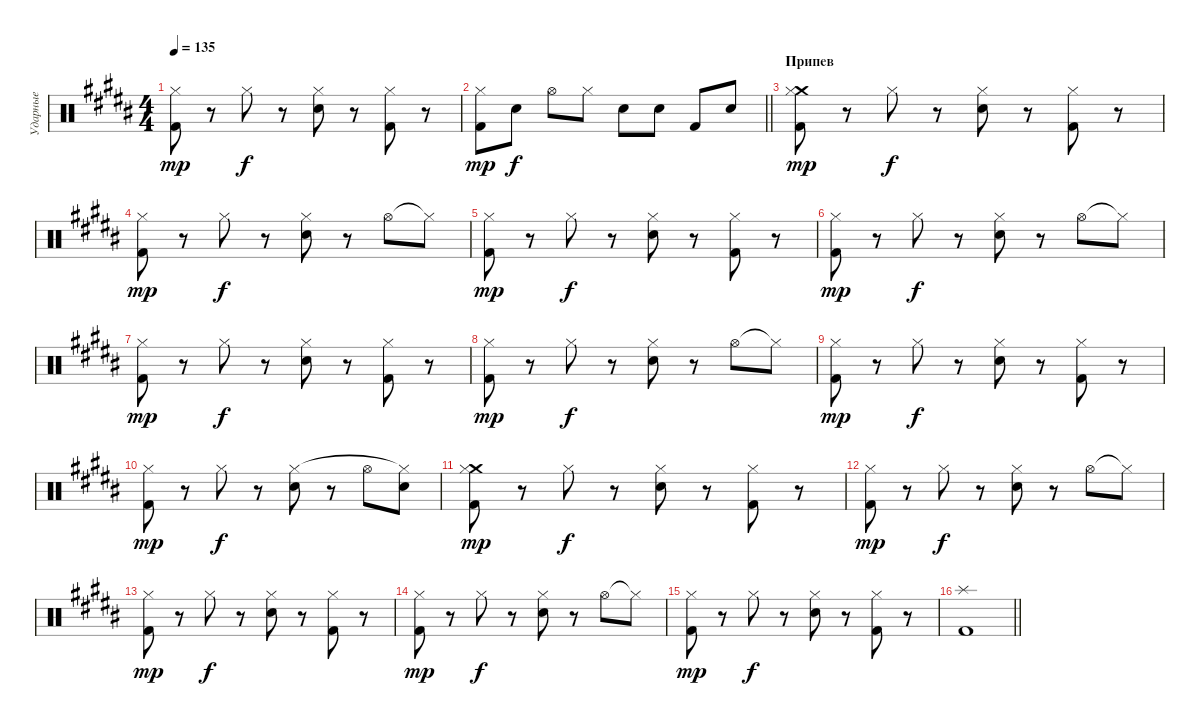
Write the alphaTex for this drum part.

\track ("Ударные" "Ударные") {instrument percussion}
\staff {score}
\articulation defaults
\ts (4 4)
\tempo 135
\clef neutral
\ks g#minor
("Kick (hit) 2" "Hi-Hat (closed)").8{dy mp} r.8 "Hi-Hat (closed)".8{dy f} r.8 ("Electric Snare (hit)" "Hi-Hat (closed)").8 r.8 ("Kick (hit) 2" "Hi-Hat (closed)").8 r.8 |
\barLineRight lightlight
("Kick (hit) 2" "Hi-Hat (closed)").8{dy mp} "Electric Snare (hit)".8{dy f} "Hi-Hat (open)".8 "Hi-Hat (closed)".8 "Electric Snare (hit)".8 "Electric Snare (hit)".8 "Kick (hit) 2".8 "Electric Snare (hit)".8 |
\section ("" "Припев")
("Crash medium (hit)" "Kick (hit) 2" "Hi-Hat (closed)").8{dy mp} r.8 "Hi-Hat (closed)".8{dy f} r.8 ("Electric Snare (hit)" "Hi-Hat (closed)").8 r.8 ("Kick (hit) 2" "Hi-Hat (closed)").8 r.8 |
("Kick (hit) 2" "Hi-Hat (closed)").8{dy mp} r.8 "Hi-Hat (closed)".8{dy f} r.8 ("Electric Snare (hit)" "Hi-Hat (closed)").8 r.8 "Hi-Hat (open)".8 "Hi-Hat (closed)"{t}.8 |
("Kick (hit) 2" "Hi-Hat (closed)").8{dy mp} r.8 "Hi-Hat (closed)".8{dy f} r.8 ("Electric Snare (hit)" "Hi-Hat (closed)").8 r.8 ("Kick (hit) 2" "Hi-Hat (closed)").8 r.8 |
("Kick (hit) 2" "Hi-Hat (closed)").8{dy mp} r.8 "Hi-Hat (closed)".8{dy f} r.8 ("Electric Snare (hit)" "Hi-Hat (closed)").8 r.8 "Hi-Hat (open)".8 "Hi-Hat (closed)"{t}.8 |
("Kick (hit) 2" "Hi-Hat (closed)").8{dy mp} r.8 "Hi-Hat (closed)".8{dy f} r.8 ("Electric Snare (hit)" "Hi-Hat (closed)").8 r.8 ("Kick (hit) 2" "Hi-Hat (closed)").8 r.8 |
("Kick (hit) 2" "Hi-Hat (closed)").8{dy mp} r.8 "Hi-Hat (closed)".8{dy f} r.8 ("Electric Snare (hit)" "Hi-Hat (closed)").8 r.8 "Hi-Hat (open)".8 "Hi-Hat (closed)"{t}.8 |
("Kick (hit) 2" "Hi-Hat (closed)").8{dy mp} r.8 "Hi-Hat (closed)".8{dy f} r.8 ("Electric Snare (hit)" "Hi-Hat (closed)").8 r.8 ("Kick (hit) 2" "Hi-Hat (closed)").8 r.8 |
("Kick (hit) 2" "Hi-Hat (closed)").8{dy mp} r.8 "Hi-Hat (closed)".8{dy f} r.8 ("Electric Snare (hit)" "Hi-Hat (closed)").8 r.8 "Hi-Hat (open)".8 ("Electric Snare (hit)" "Hi-Hat (closed)"{t}).8 |
("Crash medium (hit)" "Kick (hit) 2" "Hi-Hat (closed)").8{dy mp} r.8 "Hi-Hat (closed)".8{dy f} r.8 ("Electric Snare (hit)" "Hi-Hat (closed)").8 r.8 ("Kick (hit) 2" "Hi-Hat (closed)").8 r.8 |
("Kick (hit) 2" "Hi-Hat (closed)").8{dy mp} r.8 "Hi-Hat (closed)".8{dy f} r.8 ("Electric Snare (hit)" "Hi-Hat (closed)").8 r.8 "Hi-Hat (open)".8 "Hi-Hat (closed)"{t}.8 |
("Kick (hit) 2" "Hi-Hat (closed)").8{dy mp} r.8 "Hi-Hat (closed)".8{dy f} r.8 ("Electric Snare (hit)" "Hi-Hat (closed)").8 r.8 ("Kick (hit) 2" "Hi-Hat (closed)").8 r.8 |
("Kick (hit) 2" "Hi-Hat (closed)").8{dy mp} r.8 "Hi-Hat (closed)".8{dy f} r.8 ("Electric Snare (hit)" "Hi-Hat (closed)").8 r.8 "Hi-Hat (open)".8 "Hi-Hat (closed)"{t}.8 |
("Kick (hit) 2" "Hi-Hat (closed)").8{dy mp} r.8 "Hi-Hat (closed)".8{dy f} r.8 ("Electric Snare (hit)" "Hi-Hat (closed)").8 r.8 ("Kick (hit) 2" "Hi-Hat (closed)").8 r.8 |
\barLineRight lightlight
("Kick (hit) 2" "Splash (hit)").1
